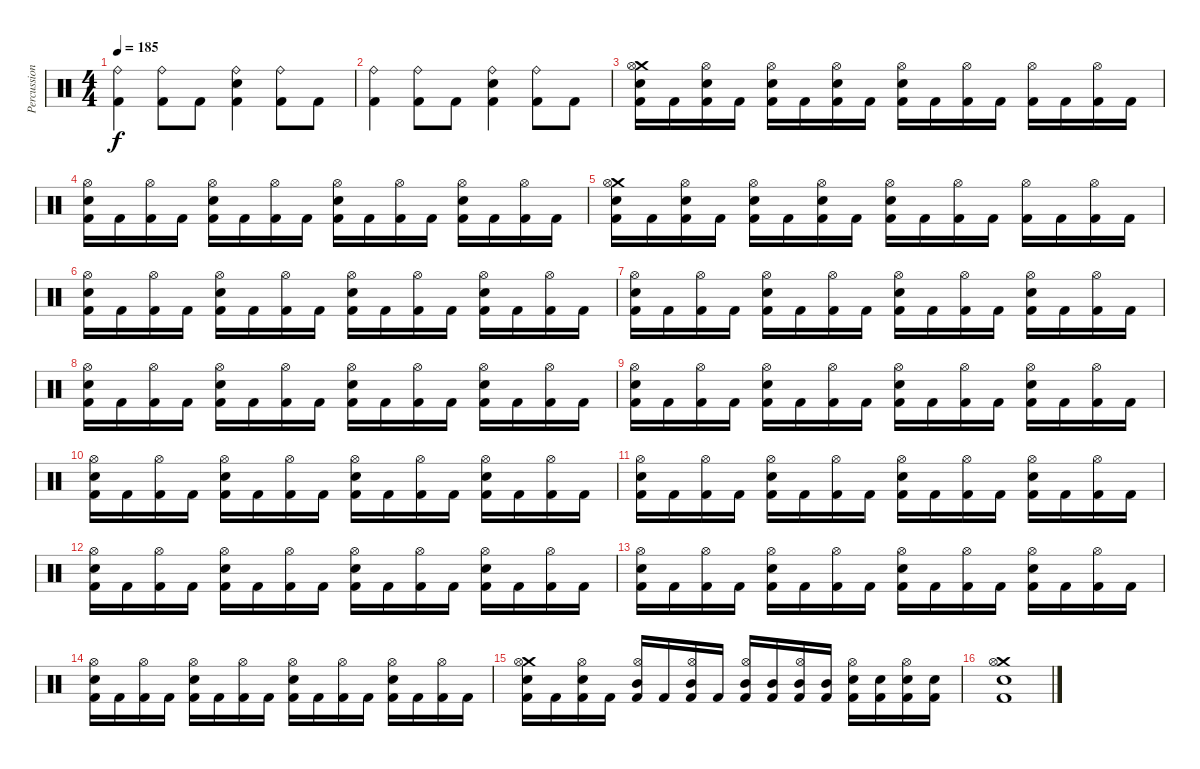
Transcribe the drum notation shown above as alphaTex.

\track ("Percussion" "Percussion") {instrument percussion}
\staff {score}
\articulation defaults
\ts (4 4)
\tempo 185
\clef neutral
\ks c
("Ride (bell)" "Kick (hit) 2").4{dy f} ("Ride (bell)" "Kick (hit) 2").8 "Kick (hit) 2".8 ("Ride (bell)" "Electric Snare (hit)" "Kick (hit) 2").4 ("Ride (bell)" "Kick (hit) 2").8 "Kick (hit) 2".8 |
("Ride (bell)" "Kick (hit) 2").4 ("Ride (bell)" "Kick (hit) 2").8 "Kick (hit) 2".8 ("Ride (bell)" "Electric Snare (hit)" "Kick (hit) 2").4 ("Ride (bell)" "Kick (hit) 2").8 "Kick (hit) 2".8 |
("Crash medium (hit)" "Hi-Hat (open)" "Electric Snare (hit)" "Kick (hit) 2").16 "Kick (hit) 2".16 ("Hi-Hat (open)" "Electric Snare (hit)" "Kick (hit) 2").16 "Kick (hit) 2".16 ("Hi-Hat (open)" "Electric Snare (hit)" "Kick (hit) 2").16 "Kick (hit) 2".16 ("Hi-Hat (open)" "Electric Snare (hit)" "Kick (hit) 2").16 "Kick (hit) 2".16 ("Hi-Hat (open)" "Electric Snare (hit)" "Kick (hit) 2").16 "Kick (hit) 2".16 ("Hi-Hat (open)" "Kick (hit) 2").16 "Kick (hit) 2".16 ("Hi-Hat (open)" "Kick (hit) 2").16 "Kick (hit) 2".16 ("Hi-Hat (open)" "Kick (hit) 2").16 "Kick (hit) 2".16 |
("Hi-Hat (open)" "Electric Snare (hit)" "Kick (hit) 2").16 "Kick (hit) 2".16 ("Hi-Hat (open)" "Kick (hit) 2").16 "Kick (hit) 2".16 ("Hi-Hat (open)" "Electric Snare (hit)" "Kick (hit) 2").16 "Kick (hit) 2".16 ("Hi-Hat (open)" "Kick (hit) 2").16 "Kick (hit) 2".16 ("Hi-Hat (open)" "Electric Snare (hit)" "Kick (hit) 2").16 "Kick (hit) 2".16 ("Hi-Hat (open)" "Kick (hit) 2").16 "Kick (hit) 2".16 ("Hi-Hat (open)" "Electric Snare (hit)" "Kick (hit) 2").16 "Kick (hit) 2".16 ("Hi-Hat (open)" "Kick (hit) 2").16 "Kick (hit) 2".16 |
("Crash medium (hit)" "Hi-Hat (open)" "Electric Snare (hit)" "Kick (hit) 2").16 "Kick (hit) 2".16 ("Hi-Hat (open)" "Electric Snare (hit)" "Kick (hit) 2").16 "Kick (hit) 2".16 ("Hi-Hat (open)" "Electric Snare (hit)" "Kick (hit) 2").16 "Kick (hit) 2".16 ("Hi-Hat (open)" "Electric Snare (hit)" "Kick (hit) 2").16 "Kick (hit) 2".16 ("Hi-Hat (open)" "Electric Snare (hit)" "Kick (hit) 2").16 "Kick (hit) 2".16 ("Hi-Hat (open)" "Kick (hit) 2").16 "Kick (hit) 2".16 ("Hi-Hat (open)" "Kick (hit) 2").16 "Kick (hit) 2".16 ("Hi-Hat (open)" "Kick (hit) 2").16 "Kick (hit) 2".16 |
("Hi-Hat (open)" "Electric Snare (hit)" "Kick (hit) 2").16 "Kick (hit) 2".16 ("Hi-Hat (open)" "Kick (hit) 2").16 "Kick (hit) 2".16 ("Hi-Hat (open)" "Electric Snare (hit)" "Kick (hit) 2").16 "Kick (hit) 2".16 ("Hi-Hat (open)" "Kick (hit) 2").16 "Kick (hit) 2".16 ("Hi-Hat (open)" "Electric Snare (hit)" "Kick (hit) 2").16 "Kick (hit) 2".16 ("Hi-Hat (open)" "Kick (hit) 2").16 "Kick (hit) 2".16 ("Hi-Hat (open)" "Electric Snare (hit)" "Kick (hit) 2").16 "Kick (hit) 2".16 ("Hi-Hat (open)" "Kick (hit) 2").16 "Kick (hit) 2".16 |
("Hi-Hat (open)" "Electric Snare (hit)" "Kick (hit) 2").16 "Kick (hit) 2".16 ("Hi-Hat (open)" "Kick (hit) 2").16 "Kick (hit) 2".16 ("Hi-Hat (open)" "Electric Snare (hit)" "Kick (hit) 2").16 "Kick (hit) 2".16 ("Hi-Hat (open)" "Kick (hit) 2").16 "Kick (hit) 2".16 ("Hi-Hat (open)" "Electric Snare (hit)" "Kick (hit) 2").16 "Kick (hit) 2".16 ("Hi-Hat (open)" "Kick (hit) 2").16 "Kick (hit) 2".16 ("Hi-Hat (open)" "Electric Snare (hit)" "Kick (hit) 2").16 "Kick (hit) 2".16 ("Hi-Hat (open)" "Kick (hit) 2").16 "Kick (hit) 2".16 |
("Hi-Hat (open)" "Electric Snare (hit)" "Kick (hit) 2").16 "Kick (hit) 2".16 ("Hi-Hat (open)" "Kick (hit) 2").16 "Kick (hit) 2".16 ("Hi-Hat (open)" "Electric Snare (hit)" "Kick (hit) 2").16 "Kick (hit) 2".16 ("Hi-Hat (open)" "Kick (hit) 2").16 "Kick (hit) 2".16 ("Hi-Hat (open)" "Electric Snare (hit)" "Kick (hit) 2").16 "Kick (hit) 2".16 ("Hi-Hat (open)" "Kick (hit) 2").16 "Kick (hit) 2".16 ("Hi-Hat (open)" "Electric Snare (hit)" "Kick (hit) 2").16 "Kick (hit) 2".16 ("Hi-Hat (open)" "Kick (hit) 2").16 "Kick (hit) 2".16 |
("Hi-Hat (open)" "Electric Snare (hit)" "Kick (hit) 2").16 "Kick (hit) 2".16 ("Hi-Hat (open)" "Kick (hit) 2").16 "Kick (hit) 2".16 ("Hi-Hat (open)" "Electric Snare (hit)" "Kick (hit) 2").16 "Kick (hit) 2".16 ("Hi-Hat (open)" "Kick (hit) 2").16 "Kick (hit) 2".16 ("Hi-Hat (open)" "Electric Snare (hit)" "Kick (hit) 2").16 "Kick (hit) 2".16 ("Hi-Hat (open)" "Kick (hit) 2").16 "Kick (hit) 2".16 ("Hi-Hat (open)" "Electric Snare (hit)" "Kick (hit) 2").16 "Kick (hit) 2".16 ("Hi-Hat (open)" "Kick (hit) 2").16 "Kick (hit) 2".16 |
("Hi-Hat (open)" "Electric Snare (hit)" "Kick (hit) 2").16 "Kick (hit) 2".16 ("Hi-Hat (open)" "Kick (hit) 2").16 "Kick (hit) 2".16 ("Hi-Hat (open)" "Electric Snare (hit)" "Kick (hit) 2").16 "Kick (hit) 2".16 ("Hi-Hat (open)" "Kick (hit) 2").16 "Kick (hit) 2".16 ("Hi-Hat (open)" "Electric Snare (hit)" "Kick (hit) 2").16 "Kick (hit) 2".16 ("Hi-Hat (open)" "Kick (hit) 2").16 "Kick (hit) 2".16 ("Hi-Hat (open)" "Electric Snare (hit)" "Kick (hit) 2").16 "Kick (hit) 2".16 ("Hi-Hat (open)" "Kick (hit) 2").16 "Kick (hit) 2".16 |
("Hi-Hat (open)" "Electric Snare (hit)" "Kick (hit) 2").16 "Kick (hit) 2".16 ("Hi-Hat (open)" "Kick (hit) 2").16 "Kick (hit) 2".16 ("Hi-Hat (open)" "Electric Snare (hit)" "Kick (hit) 2").16 "Kick (hit) 2".16 ("Hi-Hat (open)" "Kick (hit) 2").16 "Kick (hit) 2".16 ("Hi-Hat (open)" "Electric Snare (hit)" "Kick (hit) 2").16 "Kick (hit) 2".16 ("Hi-Hat (open)" "Kick (hit) 2").16 "Kick (hit) 2".16 ("Hi-Hat (open)" "Electric Snare (hit)" "Kick (hit) 2").16 "Kick (hit) 2".16 ("Hi-Hat (open)" "Kick (hit) 2").16 "Kick (hit) 2".16 |
("Hi-Hat (open)" "Electric Snare (hit)" "Kick (hit) 2").16 "Kick (hit) 2".16 ("Hi-Hat (open)" "Kick (hit) 2").16 "Kick (hit) 2".16 ("Hi-Hat (open)" "Electric Snare (hit)" "Kick (hit) 2").16 "Kick (hit) 2".16 ("Hi-Hat (open)" "Kick (hit) 2").16 "Kick (hit) 2".16 ("Hi-Hat (open)" "Electric Snare (hit)" "Kick (hit) 2").16 "Kick (hit) 2".16 ("Hi-Hat (open)" "Kick (hit) 2").16 "Kick (hit) 2".16 ("Hi-Hat (open)" "Electric Snare (hit)" "Kick (hit) 2").16 "Kick (hit) 2".16 ("Hi-Hat (open)" "Kick (hit) 2").16 "Kick (hit) 2".16 |
("Hi-Hat (open)" "Electric Snare (hit)" "Kick (hit) 2").16 "Kick (hit) 2".16 ("Hi-Hat (open)" "Kick (hit) 2").16 "Kick (hit) 2".16 ("Hi-Hat (open)" "Electric Snare (hit)" "Kick (hit) 2").16 "Kick (hit) 2".16 ("Hi-Hat (open)" "Kick (hit) 2").16 "Kick (hit) 2".16 ("Hi-Hat (open)" "Electric Snare (hit)" "Kick (hit) 2").16 "Kick (hit) 2".16 ("Hi-Hat (open)" "Kick (hit) 2").16 "Kick (hit) 2".16 ("Hi-Hat (open)" "Electric Snare (hit)" "Kick (hit) 2").16 "Kick (hit) 2".16 ("Hi-Hat (open)" "Kick (hit) 2").16 "Kick (hit) 2".16 |
("Hi-Hat (open)" "Electric Snare (hit)" "Kick (hit) 2").16 "Kick (hit) 2".16 ("Hi-Hat (open)" "Kick (hit) 2").16 "Kick (hit) 2".16 ("Hi-Hat (open)" "Electric Snare (hit)" "Kick (hit) 2").16 "Kick (hit) 2".16 ("Hi-Hat (open)" "Kick (hit) 2").16 "Kick (hit) 2".16 ("Hi-Hat (open)" "Electric Snare (hit)" "Kick (hit) 2").16 "Kick (hit) 2".16 ("Hi-Hat (open)" "Kick (hit) 2").16 "Kick (hit) 2".16 ("Hi-Hat (open)" "Electric Snare (hit)" "Kick (hit) 2").16 "Kick (hit) 2".16 ("Hi-Hat (open)" "Kick (hit) 2").16 "Kick (hit) 2".16 |
("Crash medium (hit)" "Hi-Hat (open)" "Electric Snare (hit)" "Kick (hit) 2").16 "Kick (hit) 2".16 ("Hi-Hat (open)" "Electric Snare (hit)" "Kick (hit) 2").16 "Kick (hit) 2".16 ("Hi-Hat (open)" "Mid Tom (hit)" "Kick (hit) 2").16 "Kick (hit) 2".16 ("Hi-Hat (open)" "Mid Tom (hit)" "Kick (hit) 2").16 "Kick (hit) 2".16 ("Hi-Hat (open)" "Mid Tom (hit)" "Kick (hit) 2").16 ("Mid Tom (hit)" "Kick (hit) 2").16 ("Hi-Hat (open)" "Mid Tom (hit)" "Kick (hit) 2").16 ("Mid Tom (hit)" "Kick (hit) 2").16 ("Hi-Hat (open)" "Electric Snare (hit)" "Kick (hit) 2").16 ("Electric Snare (hit)" "Kick (hit) 2").16 ("Hi-Hat (open)" "Electric Snare (hit)" "Kick (hit) 2").16 ("Electric Snare (hit)" "Kick (hit) 2").16 |
("Crash medium (hit)" "Hi-Hat (open)" "Electric Snare (hit)" "Kick (hit) 2").1
